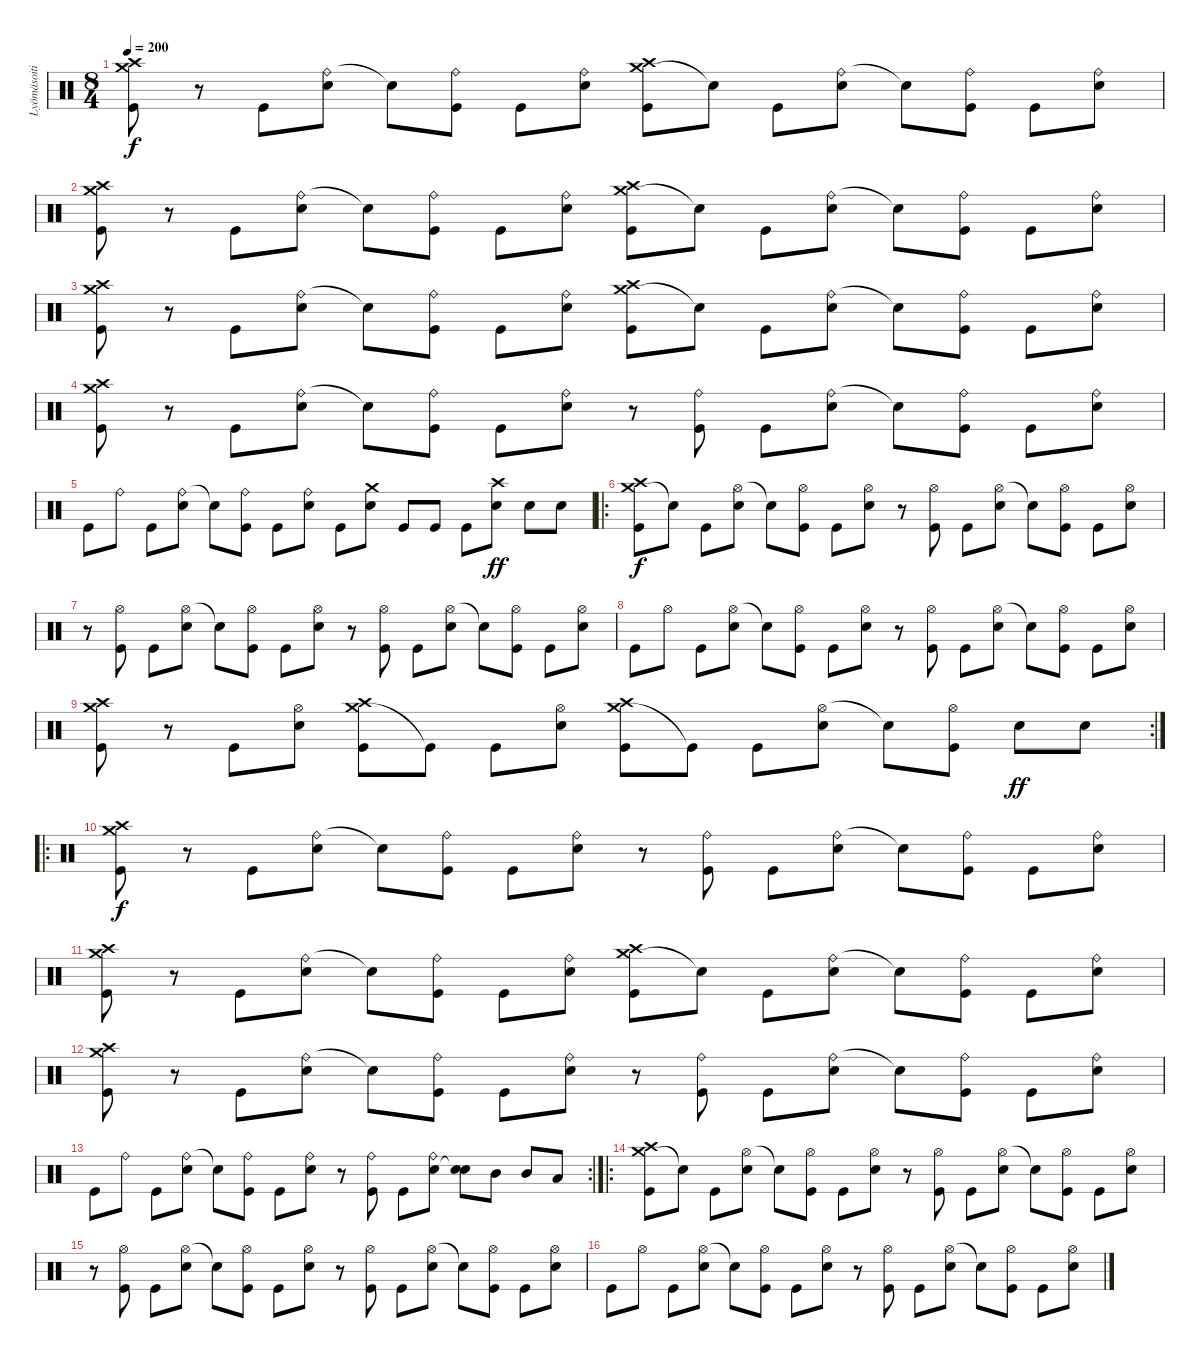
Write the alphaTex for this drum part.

\track ("Lyömäsoitin" "Lyömäsoiti") {instrument percussion}
\staff {score}
\articulation defaults
\ts (8 4)
\tempo 200
\clef neutral
\ks c
("Crash medium (hit)" "Crash high (hit)" "Kick (hit)").8{dy f} r.8 "Kick (hit)".8 ("Ride (bell)" "Snare (hit) 2").8 "Snare (hit)"{t}.8 ("Ride (bell)" "Kick (hit)").8 "Kick (hit)".8 ("Ride (bell)" "Snare (hit) 2").8 ("Crash medium (hit)" "Crash high (hit)" "Kick (hit)").8 "Snare (hit)"{t}.8 "Kick (hit)".8 ("Ride (bell)" "Snare (hit) 2").8 "Snare (hit)"{t}.8 ("Ride (bell)" "Kick (hit)").8 "Kick (hit)".8 ("Ride (bell)" "Snare (hit) 2").8 |
("Crash medium (hit)" "Crash high (hit)" "Kick (hit)").8 r.8 "Kick (hit)".8 ("Ride (bell)" "Snare (hit) 2").8 "Snare (hit)"{t}.8 ("Ride (bell)" "Kick (hit)").8 "Kick (hit)".8 ("Ride (bell)" "Snare (hit) 2").8 ("Crash medium (hit)" "Crash high (hit)" "Kick (hit)").8 "Snare (hit)"{t}.8 "Kick (hit)".8 ("Ride (bell)" "Snare (hit) 2").8 "Snare (hit)"{t}.8 ("Ride (bell)" "Kick (hit)").8 "Kick (hit)".8 ("Ride (bell)" "Snare (hit) 2").8 |
("Crash medium (hit)" "Crash high (hit)" "Kick (hit)").8 r.8 "Kick (hit)".8 ("Ride (bell)" "Snare (hit) 2").8 "Snare (hit)"{t}.8 ("Ride (bell)" "Kick (hit)").8 "Kick (hit)".8 ("Ride (bell)" "Snare (hit) 2").8 ("Crash medium (hit)" "Crash high (hit)" "Kick (hit)").8 "Snare (hit)"{t}.8 "Kick (hit)".8 ("Ride (bell)" "Snare (hit) 2").8 "Snare (hit)"{t}.8 ("Ride (bell)" "Kick (hit)").8 "Kick (hit)".8 ("Ride (bell)" "Snare (hit) 2").8 |
("Crash medium (hit)" "Crash high (hit)" "Kick (hit)").8 r.8 "Kick (hit)".8 ("Ride (bell)" "Snare (hit) 2").8 "Snare (hit)"{t}.8 ("Ride (bell)" "Kick (hit)").8 "Kick (hit)".8 ("Ride (bell)" "Snare (hit) 2").8 r.8 ("Ride (bell)" "Kick (hit)").8 "Kick (hit)".8 ("Ride (bell)" "Snare (hit) 2").8 "Snare (hit)"{t}.8 ("Ride (bell)" "Kick (hit)").8 "Kick (hit)".8 ("Ride (bell)" "Snare (hit) 2").8 |
"Kick (hit)".8 "Ride (bell)".8 "Kick (hit)".8 ("Ride (bell)" "Snare (hit) 2").8 "Snare (hit)"{t}.8 ("Ride (bell)" "Kick (hit)").8 "Kick (hit)".8 ("Ride (bell)" "Snare (hit) 2").8 "Kick (hit)".8 ("Crash medium (hit)" "Snare (hit) 2").8 "Kick (hit)".8 "Kick (hit)".8 "Kick (hit)".8 ("Crash high (hit)" "Snare (hit) 2").8{dy ff} "Snare (hit) 2".8 "Snare (hit) 2".8 |
\ro
("Crash medium (hit)" "Crash high (hit)" "Kick (hit)").8{dy f} "Snare (hit)"{t}.8 "Kick (hit)".8 ("Hi-Hat (open)" "Snare (hit) 2").8 "Snare (hit)"{t}.8 ("Hi-Hat (open)" "Kick (hit)").8 "Kick (hit)".8 ("Hi-Hat (open)" "Snare (hit) 2").8 r.8 ("Hi-Hat (open)" "Kick (hit)").8 "Kick (hit)".8 ("Hi-Hat (open)" "Snare (hit) 2").8 "Snare (hit)"{t}.8 ("Hi-Hat (open)" "Kick (hit)").8 "Kick (hit)".8 ("Hi-Hat (open)" "Snare (hit) 2").8 |
r.8 ("Hi-Hat (open)" "Kick (hit)").8 "Kick (hit)".8 ("Hi-Hat (open)" "Snare (hit) 2").8 "Snare (hit)"{t}.8 ("Hi-Hat (open)" "Kick (hit)").8 "Kick (hit)".8 ("Hi-Hat (open)" "Snare (hit) 2").8 r.8 ("Hi-Hat (open)" "Kick (hit)").8 "Kick (hit)".8 ("Hi-Hat (open)" "Snare (hit) 2").8 "Snare (hit)"{t}.8 ("Hi-Hat (open)" "Kick (hit)").8 "Kick (hit)".8 ("Hi-Hat (open)" "Snare (hit) 2").8 |
"Kick (hit)".8 "Hi-Hat (open)".8 "Kick (hit)".8 ("Hi-Hat (open)" "Snare (hit) 2").8 "Snare (hit)"{t}.8 ("Hi-Hat (open)" "Kick (hit)").8 "Kick (hit)".8 ("Hi-Hat (open)" "Snare (hit) 2").8 r.8 ("Hi-Hat (open)" "Kick (hit)").8 "Kick (hit)".8 ("Hi-Hat (open)" "Snare (hit) 2").8 "Snare (hit)"{t}.8 ("Hi-Hat (open)" "Kick (hit)").8 "Kick (hit)".8 ("Hi-Hat (open)" "Snare (hit) 2").8 |
\rc 2
("Crash medium (hit)" "Crash high (hit)" "Kick (hit)").8 r.8 "Kick (hit)".8 ("Hi-Hat (open)" "Snare (hit) 2").8 ("Crash medium (hit)" "Crash high (hit)" "Kick (hit)").8 "Kick (hit)"{t}.8 "Kick (hit)".8 ("Hi-Hat (open)" "Snare (hit) 2").8 ("Crash medium (hit)" "Crash high (hit)" "Kick (hit)").8 "Kick (hit)"{t}.8 "Kick (hit)".8 ("Hi-Hat (open)" "Snare (hit) 2").8 "Snare (hit)"{t}.8 ("Hi-Hat (open)" "Kick (hit)").8 "Snare (hit) 2".8{dy ff} "Snare (hit) 2".8 |
\ro
("Crash medium (hit)" "Crash high (hit)" "Kick (hit)").8{dy f} r.8 "Kick (hit)".8 ("Ride (bell)" "Snare (hit) 2").8 "Snare (hit)"{t}.8 ("Ride (bell)" "Kick (hit)").8 "Kick (hit)".8 ("Ride (bell)" "Snare (hit) 2").8 r.8 ("Ride (bell)" "Kick (hit)").8 "Kick (hit)".8 ("Ride (bell)" "Snare (hit) 2").8 "Snare (hit)"{t}.8 ("Ride (bell)" "Kick (hit)").8 "Kick (hit)".8 ("Ride (bell)" "Snare (hit) 2").8 |
("Crash medium (hit)" "Crash high (hit)" "Kick (hit)").8 r.8 "Kick (hit)".8 ("Ride (bell)" "Snare (hit) 2").8 "Snare (hit)"{t}.8 ("Ride (bell)" "Kick (hit)").8 "Kick (hit)".8 ("Ride (bell)" "Snare (hit) 2").8 ("Crash medium (hit)" "Crash high (hit)" "Kick (hit)").8 "Snare (hit)"{t}.8 "Kick (hit)".8 ("Ride (bell)" "Snare (hit) 2").8 "Snare (hit)"{t}.8 ("Ride (bell)" "Kick (hit)").8 "Kick (hit)".8 ("Ride (bell)" "Snare (hit) 2").8 |
("Crash medium (hit)" "Crash high (hit)" "Kick (hit)").8 r.8 "Kick (hit)".8 ("Ride (bell)" "Snare (hit) 2").8 "Snare (hit)"{t}.8 ("Ride (bell)" "Kick (hit)").8 "Kick (hit)".8 ("Ride (bell)" "Snare (hit) 2").8 r.8 ("Ride (bell)" "Kick (hit)").8 "Kick (hit)".8 ("Ride (bell)" "Snare (hit) 2").8 "Snare (hit)"{t}.8 ("Ride (bell)" "Kick (hit)").8 "Kick (hit)".8 ("Ride (bell)" "Snare (hit) 2").8 |
\rc 2 "Kick (hit)".8 "Ride (bell)".8 "Kick (hit)".8
("Ride (bell)" "Snare (hit) 2").8 "Snare (hit)"{t}.8 ("Ride (bell)" "Kick (hit)").8 "Kick (hit)".8 ("Ride (bell)" "Snare (hit) 2").8 r.8 ("Ride (bell)" "Kick (hit)").8 "Kick (hit)".8 ("Ride (bell)" "Snare (hit) 2").8 ("Snare (hit) 2" "Snare (hit)"{t}).8 "Mid Tom (hit)".8 "Mid Tom (hit)".8 "Low Tom (hit)".8 |
\ro
("Crash medium (hit)" "Crash high (hit)" "Kick (hit)").8 "Snare (hit)"{t}.8 "Kick (hit)".8 ("Hi-Hat (open)" "Snare (hit) 2").8 "Snare (hit)"{t}.8 ("Hi-Hat (open)" "Kick (hit)").8 "Kick (hit)".8 ("Hi-Hat (open)" "Snare (hit) 2").8 r.8 ("Hi-Hat (open)" "Kick (hit)").8 "Kick (hit)".8 ("Hi-Hat (open)" "Snare (hit) 2").8 "Snare (hit)"{t}.8 ("Hi-Hat (open)" "Kick (hit)").8 "Kick (hit)".8 ("Hi-Hat (open)" "Snare (hit) 2").8 |
r.8 ("Hi-Hat (open)" "Kick (hit)").8 "Kick (hit)".8 ("Hi-Hat (open)" "Snare (hit) 2").8 "Snare (hit)"{t}.8 ("Hi-Hat (open)" "Kick (hit)").8 "Kick (hit)".8 ("Hi-Hat (open)" "Snare (hit) 2").8 r.8 ("Hi-Hat (open)" "Kick (hit)").8 "Kick (hit)".8 ("Hi-Hat (open)" "Snare (hit) 2").8 "Snare (hit)"{t}.8 ("Hi-Hat (open)" "Kick (hit)").8 "Kick (hit)".8 ("Hi-Hat (open)" "Snare (hit) 2").8 |
"Kick (hit)".8 "Hi-Hat (open)".8 "Kick (hit)".8 ("Hi-Hat (open)" "Snare (hit) 2").8 "Snare (hit)"{t}.8 ("Hi-Hat (open)" "Kick (hit)").8 "Kick (hit)".8 ("Hi-Hat (open)" "Snare (hit) 2").8 r.8 ("Hi-Hat (open)" "Kick (hit)").8 "Kick (hit)".8 ("Hi-Hat (open)" "Snare (hit) 2").8 "Snare (hit)"{t}.8 ("Hi-Hat (open)" "Kick (hit)").8 "Kick (hit)".8 ("Hi-Hat (open)" "Snare (hit) 2").8
